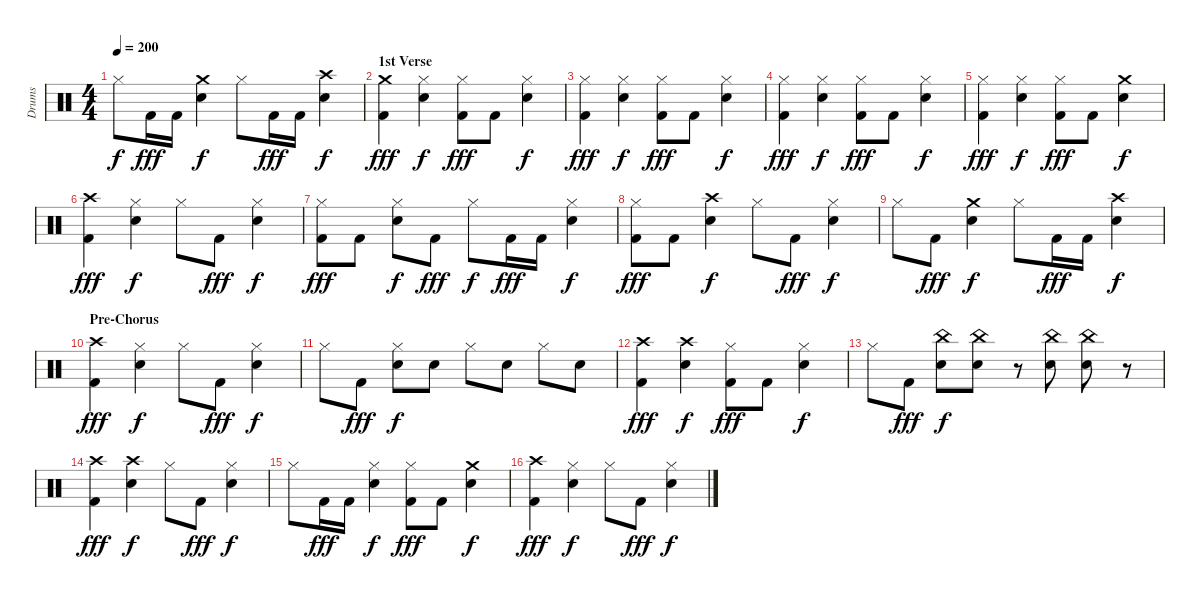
\track ("Drums" "Drums") {instrument percussion}
\staff {score}
\articulation defaults
\ts (4 4)
\tempo 200
\clef neutral
\ks c "Hi-Hat (closed)".8{dy f} "Kick (hit) 2".16{dy fff} "Kick (hit) 2".16
("Crash medium (hit)" "Snare (hit) 2").4{dy f} "Hi-Hat (closed)".8 "Kick (hit) 2".16{dy fff} "Kick (hit) 2".16 ("Crash high (hit)" "Snare (hit) 2").4{dy f} |
\section ("" "1st Verse")
("Crash medium (hit)" "Kick (hit) 2").4{dy fff} ("Hi-Hat (closed)" "Snare (hit) 2").4{dy f} ("Hi-Hat (closed)" "Kick (hit) 2").8{dy fff} "Kick (hit) 2".8 ("Hi-Hat (closed)" "Snare (hit) 2").4{dy f} |
("Hi-Hat (closed)" "Kick (hit) 2").4{dy fff} ("Hi-Hat (closed)" "Snare (hit) 2").4{dy f} ("Hi-Hat (closed)" "Kick (hit) 2").8{dy fff} "Kick (hit) 2".8 ("Hi-Hat (closed)" "Snare (hit) 2").4{dy f} |
("Hi-Hat (closed)" "Kick (hit) 2").4{dy fff} ("Hi-Hat (closed)" "Snare (hit) 2").4{dy f} ("Hi-Hat (closed)" "Kick (hit) 2").8{dy fff} "Kick (hit) 2".8 ("Hi-Hat (closed)" "Snare (hit) 2").4{dy f} |
("Hi-Hat (closed)" "Kick (hit) 2").4{dy fff} ("Hi-Hat (closed)" "Snare (hit) 2").4{dy f} ("Hi-Hat (closed)" "Kick (hit) 2").8{dy fff} "Kick (hit) 2".8 ("Crash medium (hit)" "Snare (hit) 2").4{dy f} |
("Crash high (hit)" "Kick (hit) 2").4{dy fff} ("Hi-Hat (closed)" "Snare (hit) 2").4{dy f} "Hi-Hat (closed)".8 "Kick (hit) 2".8{dy fff} ("Hi-Hat (closed)" "Snare (hit) 2").4{dy f} |
("Hi-Hat (closed)" "Kick (hit) 2").8{dy fff} "Kick (hit) 2".8 ("Hi-Hat (closed)" "Snare (hit) 2").8{dy f} "Kick (hit) 2".8{dy fff} "Hi-Hat (closed)".8{dy f} "Kick (hit) 2".16{dy fff} "Kick (hit) 2".16 ("Hi-Hat (closed)" "Snare (hit) 2").4{dy f} |
("Hi-Hat (closed)" "Kick (hit) 2").8{dy fff} "Kick (hit) 2".8 ("Crash high (hit)" "Snare (hit) 2").4{dy f} "Hi-Hat (closed)".8 "Kick (hit) 2".8{dy fff} ("Hi-Hat (closed)" "Snare (hit) 2").4{dy f} |
"Hi-Hat (closed)".8 "Kick (hit) 2".8{dy fff} ("Crash medium (hit)" "Snare (hit) 2").4{dy f} "Hi-Hat (closed)".8 "Kick (hit) 2".16{dy fff} "Kick (hit) 2".16 ("Crash high (hit)" "Snare (hit) 2").4{dy f} |
\section ("" "Pre-Chorus")
("Crash high (hit)" "Kick (hit) 2").4{dy fff} ("Hi-Hat (closed)" "Snare (hit) 2").4{dy f} "Hi-Hat (closed)".8 "Kick (hit) 2".8{dy fff} ("Hi-Hat (closed)" "Snare (hit) 2").4{dy f} |
"Hi-Hat (closed)".8 "Kick (hit) 2".8{dy fff} ("Hi-Hat (closed)" "Snare (hit) 2").8{dy f} "Snare (hit) 2".8 "Hi-Hat (closed)".8 "Snare (hit) 2".8 "Hi-Hat (closed)".8 "Snare (hit) 2".8 |
("Crash high (hit)" "Kick (hit) 2").4{dy fff} ("Crash high (hit)" "Snare (hit) 2").4{dy f} ("Hi-Hat (closed)" "Kick (hit) 2").8{dy fff} "Kick (hit) 2".8 ("Hi-Hat (closed)" "Snare (hit) 2").4{dy f} |
"Hi-Hat (closed)".8 "Kick (hit) 2".8{dy fff} ("China (hit)" "Snare (hit) 2").8{dy f} ("China (hit)" "Snare (hit) 2").8 r.8 ("China (hit)" "Snare (hit) 2").8 ("China (hit)" "Snare (hit) 2").8 r.8 |
("Crash high (hit)" "Kick (hit) 2").4{dy fff} ("Crash high (hit)" "Snare (hit) 2").4{dy f} "Hi-Hat (closed)".8 "Kick (hit) 2".8{dy fff} ("Hi-Hat (closed)" "Snare (hit) 2").4{dy f} |
"Hi-Hat (closed)".8 "Kick (hit) 2".16{dy fff} "Kick (hit) 2".16 ("Hi-Hat (closed)" "Snare (hit) 2").4{dy f} ("Hi-Hat (closed)" "Kick (hit) 2").8{dy fff} "Kick (hit) 2".8 ("Crash medium (hit)" "Snare (hit) 2").4{dy f} |
("Crash high (hit)" "Kick (hit) 2").4{dy fff} ("Hi-Hat (closed)" "Snare (hit) 2").4{dy f} "Hi-Hat (closed)".8 "Kick (hit) 2".8{dy fff} ("Hi-Hat (closed)" "Snare (hit) 2").4{dy f}
